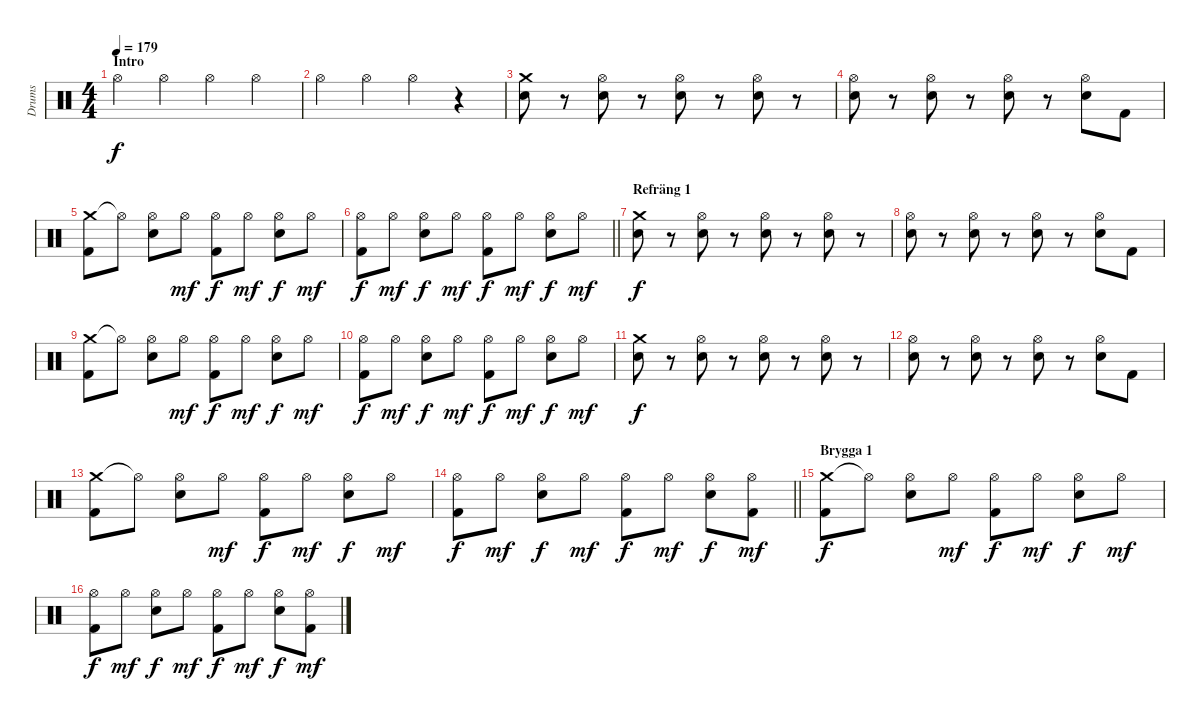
\track ("Drums" "Drums") {instrument percussion}
\staff {score}
\articulation defaults
\ts (4 4)
\section ("" "Intro")
\tempo 179
\clef neutral
\ks c "Hi-Hat (open)".4{dy f} "Hi-Hat (open)".4 "Hi-Hat (open)".4 "Hi-Hat (open)".4
|
"Hi-Hat (open)".4 "Hi-Hat (open)".4 "Hi-Hat (open)".4 r.4 |
("Crash medium (hit)" "Electric Snare (hit)").8 r.8 ("Hi-Hat (open)" "Electric Snare (hit)").8 r.8 ("Hi-Hat (open)" "Electric Snare (hit)").8 r.8 ("Hi-Hat (open)" "Electric Snare (hit)").8 r.8 |
("Hi-Hat (open)" "Electric Snare (hit)").8 r.8 ("Hi-Hat (open)" "Electric Snare (hit)").8 r.8 ("Hi-Hat (open)" "Electric Snare (hit)").8 r.8 ("Hi-Hat (open)" "Electric Snare (hit)").8 "Kick (hit) 2".8 |
("Crash medium (hit)" "Kick (hit) 2").8 "Hi-Hat (open)"{t}.8 ("Hi-Hat (open)" "Electric Snare (hit)").8 "Hi-Hat (open)".8{dy mf} ("Hi-Hat (open)" "Kick (hit) 2").8{dy f} "Hi-Hat (open)".8{dy mf} ("Hi-Hat (open)" "Electric Snare (hit)").8{dy f} "Hi-Hat (open)".8{dy mf} |
\barLineRight lightlight
("Hi-Hat (open)" "Kick (hit) 2").8{dy f} "Hi-Hat (open)".8{dy mf} ("Hi-Hat (open)" "Electric Snare (hit)").8{dy f} "Hi-Hat (open)".8{dy mf} ("Hi-Hat (open)" "Kick (hit) 2").8{dy f} "Hi-Hat (open)".8{dy mf} ("Hi-Hat (open)" "Electric Snare (hit)").8{dy f} "Hi-Hat (open)".8{dy mf} |
\section ("" "Refräng 1")
("Crash medium (hit)" "Electric Snare (hit)").8{dy f} r.8 ("Hi-Hat (open)" "Electric Snare (hit)").8 r.8 ("Hi-Hat (open)" "Electric Snare (hit)").8 r.8 ("Hi-Hat (open)" "Electric Snare (hit)").8 r.8 |
("Hi-Hat (open)" "Electric Snare (hit)").8 r.8 ("Hi-Hat (open)" "Electric Snare (hit)").8 r.8 ("Hi-Hat (open)" "Electric Snare (hit)").8 r.8 ("Hi-Hat (open)" "Electric Snare (hit)").8 "Kick (hit) 2".8 |
("Crash medium (hit)" "Kick (hit) 2").8 "Hi-Hat (open)"{t}.8 ("Hi-Hat (open)" "Electric Snare (hit)").8 "Hi-Hat (open)".8{dy mf} ("Hi-Hat (open)" "Kick (hit) 2").8{dy f} "Hi-Hat (open)".8{dy mf} ("Hi-Hat (open)" "Electric Snare (hit)").8{dy f} "Hi-Hat (open)".8{dy mf} |
("Hi-Hat (open)" "Kick (hit) 2").8{dy f} "Hi-Hat (open)".8{dy mf} ("Hi-Hat (open)" "Electric Snare (hit)").8{dy f} "Hi-Hat (open)".8{dy mf} ("Hi-Hat (open)" "Kick (hit) 2").8{dy f} "Hi-Hat (open)".8{dy mf} ("Hi-Hat (open)" "Electric Snare (hit)").8{dy f} "Hi-Hat (open)".8{dy mf} |
("Crash medium (hit)" "Electric Snare (hit)").8{dy f} r.8 ("Hi-Hat (open)" "Electric Snare (hit)").8 r.8 ("Hi-Hat (open)" "Electric Snare (hit)").8 r.8 ("Hi-Hat (open)" "Electric Snare (hit)").8 r.8 |
("Hi-Hat (open)" "Electric Snare (hit)").8 r.8 ("Hi-Hat (open)" "Electric Snare (hit)").8 r.8 ("Hi-Hat (open)" "Electric Snare (hit)").8 r.8 ("Hi-Hat (open)" "Electric Snare (hit)").8 "Kick (hit) 2".8 |
("Crash medium (hit)" "Kick (hit) 2").8 "Hi-Hat (open)"{t}.8 ("Hi-Hat (open)" "Electric Snare (hit)").8 "Hi-Hat (open)".8{dy mf} ("Hi-Hat (open)" "Kick (hit) 2").8{dy f} "Hi-Hat (open)".8{dy mf} ("Hi-Hat (open)" "Electric Snare (hit)").8{dy f} "Hi-Hat (open)".8{dy mf} |
\barLineRight lightlight
("Hi-Hat (open)" "Kick (hit) 2").8{dy f} "Hi-Hat (open)".8{dy mf} ("Hi-Hat (open)" "Electric Snare (hit)").8{dy f} "Hi-Hat (open)".8{dy mf} ("Hi-Hat (open)" "Kick (hit) 2").8{dy f} "Hi-Hat (open)".8{dy mf} ("Hi-Hat (open)" "Electric Snare (hit)").8{dy f} ("Hi-Hat (open)" "Kick (hit) 2").8{dy mf} |
\section ("" "Brygga 1")
("Crash medium (hit)" "Kick (hit) 2").8{dy f} "Hi-Hat (open)"{t}.8 ("Hi-Hat (open)" "Electric Snare (hit)").8 "Hi-Hat (open)".8{dy mf} ("Hi-Hat (open)" "Kick (hit) 2").8{dy f} "Hi-Hat (open)".8{dy mf} ("Hi-Hat (open)" "Electric Snare (hit)").8{dy f} "Hi-Hat (open)".8{dy mf} |
("Hi-Hat (open)" "Kick (hit) 2").8{dy f} "Hi-Hat (open)".8{dy mf} ("Hi-Hat (open)" "Electric Snare (hit)").8{dy f} "Hi-Hat (open)".8{dy mf} ("Hi-Hat (open)" "Kick (hit) 2").8{dy f} "Hi-Hat (open)".8{dy mf} ("Hi-Hat (open)" "Electric Snare (hit)").8{dy f} ("Hi-Hat (open)" "Kick (hit) 2").8{dy mf}
